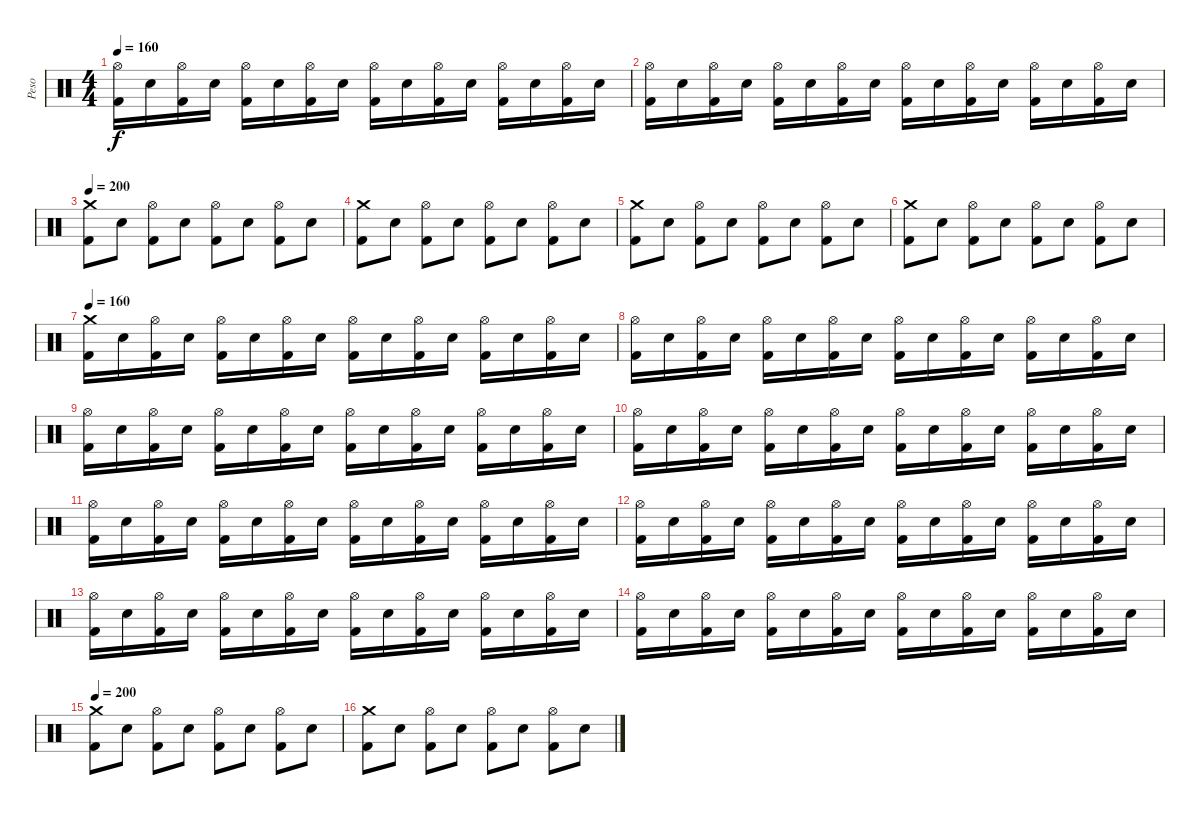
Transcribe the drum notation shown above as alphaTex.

\track ("Peso" "Peso") {instrument percussion}
\staff {score}
\articulation defaults
\ts (4 4)
\tempo 160
\clef neutral
\ks c
("Hi-Hat (open)" "Kick (hit) 2").16{dy f} "Electric Snare (hit)".16 ("Hi-Hat (open)" "Kick (hit) 2").16 "Electric Snare (hit)".16 ("Hi-Hat (open)" "Kick (hit) 2").16 "Electric Snare (hit)".16 ("Hi-Hat (open)" "Kick (hit) 2").16 "Electric Snare (hit)".16 ("Hi-Hat (open)" "Kick (hit) 2").16 "Electric Snare (hit)".16 ("Hi-Hat (open)" "Kick (hit) 2").16 "Electric Snare (hit)".16 ("Hi-Hat (open)" "Kick (hit) 2").16 "Electric Snare (hit)".16 ("Hi-Hat (open)" "Kick (hit) 2").16 "Electric Snare (hit)".16 |
("Hi-Hat (open)" "Kick (hit) 2").16 "Electric Snare (hit)".16 ("Hi-Hat (open)" "Kick (hit) 2").16 "Electric Snare (hit)".16 ("Hi-Hat (open)" "Kick (hit) 2").16 "Electric Snare (hit)".16 ("Hi-Hat (open)" "Kick (hit) 2").16 "Electric Snare (hit)".16 ("Hi-Hat (open)" "Kick (hit) 2").16 "Electric Snare (hit)".16 ("Hi-Hat (open)" "Kick (hit) 2").16 "Electric Snare (hit)".16 ("Hi-Hat (open)" "Kick (hit) 2").16 "Electric Snare (hit)".16 ("Hi-Hat (open)" "Kick (hit) 2").16 "Electric Snare (hit)".16 |
\tempo 200
("Crash medium (hit)" "Kick (hit) 2").8 "Electric Snare (hit)".8 ("Hi-Hat (open)" "Kick (hit) 2").8 "Electric Snare (hit)".8 ("Hi-Hat (open)" "Kick (hit) 2").8 "Electric Snare (hit)".8 ("Hi-Hat (open)" "Kick (hit) 2").8 "Electric Snare (hit)".8 |
("Crash medium (hit)" "Kick (hit) 2").8 "Electric Snare (hit)".8 ("Hi-Hat (open)" "Kick (hit) 2").8 "Electric Snare (hit)".8 ("Hi-Hat (open)" "Kick (hit) 2").8 "Electric Snare (hit)".8 ("Hi-Hat (open)" "Kick (hit) 2").8 "Electric Snare (hit)".8 |
("Crash medium (hit)" "Kick (hit) 2").8 "Electric Snare (hit)".8 ("Hi-Hat (open)" "Kick (hit) 2").8 "Electric Snare (hit)".8 ("Hi-Hat (open)" "Kick (hit) 2").8 "Electric Snare (hit)".8 ("Hi-Hat (open)" "Kick (hit) 2").8 "Electric Snare (hit)".8 |
("Crash medium (hit)" "Kick (hit) 2").8 "Electric Snare (hit)".8 ("Hi-Hat (open)" "Kick (hit) 2").8 "Electric Snare (hit)".8 ("Hi-Hat (open)" "Kick (hit) 2").8 "Electric Snare (hit)".8 ("Hi-Hat (open)" "Kick (hit) 2").8 "Electric Snare (hit)".8 |
\tempo 160
("Crash medium (hit)" "Kick (hit) 2").16 "Electric Snare (hit)".16 ("Hi-Hat (open)" "Kick (hit) 2").16 "Electric Snare (hit)".16 ("Hi-Hat (open)" "Kick (hit) 2").16 "Electric Snare (hit)".16 ("Hi-Hat (open)" "Kick (hit) 2").16 "Electric Snare (hit)".16 ("Hi-Hat (open)" "Kick (hit) 2").16 "Electric Snare (hit)".16 ("Hi-Hat (open)" "Kick (hit) 2").16 "Electric Snare (hit)".16 ("Hi-Hat (open)" "Kick (hit) 2").16 "Electric Snare (hit)".16 ("Hi-Hat (open)" "Kick (hit) 2").16 "Electric Snare (hit)".16 |
("Hi-Hat (open)" "Kick (hit) 2").16 "Electric Snare (hit)".16 ("Hi-Hat (open)" "Kick (hit) 2").16 "Electric Snare (hit)".16 ("Hi-Hat (open)" "Kick (hit) 2").16 "Electric Snare (hit)".16 ("Hi-Hat (open)" "Kick (hit) 2").16 "Electric Snare (hit)".16 ("Hi-Hat (open)" "Kick (hit) 2").16 "Electric Snare (hit)".16 ("Hi-Hat (open)" "Kick (hit) 2").16 "Electric Snare (hit)".16 ("Hi-Hat (open)" "Kick (hit) 2").16 "Electric Snare (hit)".16 ("Hi-Hat (open)" "Kick (hit) 2").16 "Electric Snare (hit)".16 |
("Hi-Hat (open)" "Kick (hit) 2").16 "Electric Snare (hit)".16 ("Hi-Hat (open)" "Kick (hit) 2").16 "Electric Snare (hit)".16 ("Hi-Hat (open)" "Kick (hit) 2").16 "Electric Snare (hit)".16 ("Hi-Hat (open)" "Kick (hit) 2").16 "Electric Snare (hit)".16 ("Hi-Hat (open)" "Kick (hit) 2").16 "Electric Snare (hit)".16 ("Hi-Hat (open)" "Kick (hit) 2").16 "Electric Snare (hit)".16 ("Hi-Hat (open)" "Kick (hit) 2").16 "Electric Snare (hit)".16 ("Hi-Hat (open)" "Kick (hit) 2").16 "Electric Snare (hit)".16 |
("Hi-Hat (open)" "Kick (hit) 2").16 "Electric Snare (hit)".16 ("Hi-Hat (open)" "Kick (hit) 2").16 "Electric Snare (hit)".16 ("Hi-Hat (open)" "Kick (hit) 2").16 "Electric Snare (hit)".16 ("Hi-Hat (open)" "Kick (hit) 2").16 "Electric Snare (hit)".16 ("Hi-Hat (open)" "Kick (hit) 2").16 "Electric Snare (hit)".16 ("Hi-Hat (open)" "Kick (hit) 2").16 "Electric Snare (hit)".16 ("Hi-Hat (open)" "Kick (hit) 2").16 "Electric Snare (hit)".16 ("Hi-Hat (open)" "Kick (hit) 2").16 "Electric Snare (hit)".16 |
("Hi-Hat (open)" "Kick (hit) 2").16 "Electric Snare (hit)".16 ("Hi-Hat (open)" "Kick (hit) 2").16 "Electric Snare (hit)".16 ("Hi-Hat (open)" "Kick (hit) 2").16 "Electric Snare (hit)".16 ("Hi-Hat (open)" "Kick (hit) 2").16 "Electric Snare (hit)".16 ("Hi-Hat (open)" "Kick (hit) 2").16 "Electric Snare (hit)".16 ("Hi-Hat (open)" "Kick (hit) 2").16 "Electric Snare (hit)".16 ("Hi-Hat (open)" "Kick (hit) 2").16 "Electric Snare (hit)".16 ("Hi-Hat (open)" "Kick (hit) 2").16 "Electric Snare (hit)".16 |
("Hi-Hat (open)" "Kick (hit) 2").16 "Electric Snare (hit)".16 ("Hi-Hat (open)" "Kick (hit) 2").16 "Electric Snare (hit)".16 ("Hi-Hat (open)" "Kick (hit) 2").16 "Electric Snare (hit)".16 ("Hi-Hat (open)" "Kick (hit) 2").16 "Electric Snare (hit)".16 ("Hi-Hat (open)" "Kick (hit) 2").16 "Electric Snare (hit)".16 ("Hi-Hat (open)" "Kick (hit) 2").16 "Electric Snare (hit)".16 ("Hi-Hat (open)" "Kick (hit) 2").16 "Electric Snare (hit)".16 ("Hi-Hat (open)" "Kick (hit) 2").16 "Electric Snare (hit)".16 |
("Hi-Hat (open)" "Kick (hit) 2").16 "Electric Snare (hit)".16 ("Hi-Hat (open)" "Kick (hit) 2").16 "Electric Snare (hit)".16 ("Hi-Hat (open)" "Kick (hit) 2").16 "Electric Snare (hit)".16 ("Hi-Hat (open)" "Kick (hit) 2").16 "Electric Snare (hit)".16 ("Hi-Hat (open)" "Kick (hit) 2").16 "Electric Snare (hit)".16 ("Hi-Hat (open)" "Kick (hit) 2").16 "Electric Snare (hit)".16 ("Hi-Hat (open)" "Kick (hit) 2").16 "Electric Snare (hit)".16 ("Hi-Hat (open)" "Kick (hit) 2").16 "Electric Snare (hit)".16 |
("Hi-Hat (open)" "Kick (hit) 2").16 "Electric Snare (hit)".16 ("Hi-Hat (open)" "Kick (hit) 2").16 "Electric Snare (hit)".16 ("Hi-Hat (open)" "Kick (hit) 2").16 "Electric Snare (hit)".16 ("Hi-Hat (open)" "Kick (hit) 2").16 "Electric Snare (hit)".16 ("Hi-Hat (open)" "Kick (hit) 2").16 "Electric Snare (hit)".16 ("Hi-Hat (open)" "Kick (hit) 2").16 "Electric Snare (hit)".16 ("Hi-Hat (open)" "Kick (hit) 2").16 "Electric Snare (hit)".16 ("Hi-Hat (open)" "Kick (hit) 2").16 "Electric Snare (hit)".16 |
\tempo 200
("Crash medium (hit)" "Kick (hit) 2").8 "Electric Snare (hit)".8 ("Hi-Hat (open)" "Kick (hit) 2").8 "Electric Snare (hit)".8 ("Hi-Hat (open)" "Kick (hit) 2").8 "Electric Snare (hit)".8 ("Hi-Hat (open)" "Kick (hit) 2").8 "Electric Snare (hit)".8 |
("Crash medium (hit)" "Kick (hit) 2").8 "Electric Snare (hit)".8 ("Hi-Hat (open)" "Kick (hit) 2").8 "Electric Snare (hit)".8 ("Hi-Hat (open)" "Kick (hit) 2").8 "Electric Snare (hit)".8 ("Hi-Hat (open)" "Kick (hit) 2").8 "Electric Snare (hit)".8
